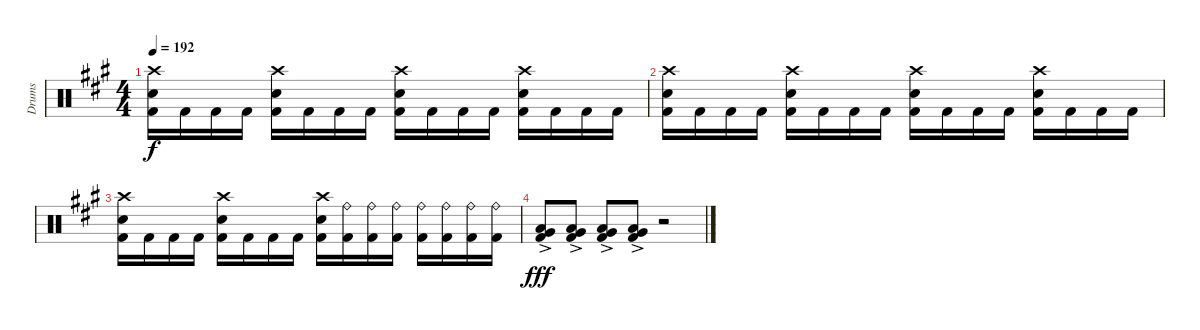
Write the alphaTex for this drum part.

\track ("Drums" "Drums") {instrument percussion}
\staff {score}
\articulation defaults
\ts (4 4)
\tempo 192
\clef neutral
\ks f#minor
("Crash high (hit)" "Snare (hit) 2" "Kick (hit) 2").16{dy f} "Kick (hit) 2".16 "Kick (hit) 2".16 "Kick (hit) 2".16 ("Crash high (hit)" "Snare (hit) 2" "Kick (hit) 2").16 "Kick (hit) 2".16 "Kick (hit) 2".16 "Kick (hit) 2".16 ("Crash high (hit)" "Snare (hit) 2" "Kick (hit) 2").16 "Kick (hit) 2".16 "Kick (hit) 2".16 "Kick (hit) 2".16 ("Crash high (hit)" "Snare (hit) 2" "Kick (hit) 2").16 "Kick (hit) 2".16 "Kick (hit) 2".16 "Kick (hit) 2".16 |
("Crash high (hit)" "Snare (hit) 2" "Kick (hit) 2").16 "Kick (hit) 2".16 "Kick (hit) 2".16 "Kick (hit) 2".16 ("Crash high (hit)" "Snare (hit) 2" "Kick (hit) 2").16 "Kick (hit) 2".16 "Kick (hit) 2".16 "Kick (hit) 2".16 ("Crash high (hit)" "Snare (hit) 2" "Kick (hit) 2").16 "Kick (hit) 2".16 "Kick (hit) 2".16 "Kick (hit) 2".16 ("Crash high (hit)" "Snare (hit) 2" "Kick (hit) 2").16 "Kick (hit) 2".16 "Kick (hit) 2".16 "Kick (hit) 2".16 |
("Crash high (hit)" "Snare (hit) 2" "Kick (hit) 2").16 "Kick (hit) 2".16 "Kick (hit) 2".16 "Kick (hit) 2".16 ("Crash high (hit)" "Snare (hit) 2" "Kick (hit) 2").16 "Kick (hit) 2".16 "Kick (hit) 2".16 "Kick (hit) 2".16 ("Crash high (hit)" "Snare (hit) 2" "Kick (hit) 2").16 ("Ride (bell)" "Kick (hit) 2").16 ("Ride (bell)" "Kick (hit) 2").16 ("Ride (bell)" "Kick (hit) 2").16 ("Ride (bell)" "Kick (hit) 2").16 ("Ride (bell)" "Kick (hit) 2").16 ("Ride (bell)" "Kick (hit) 2").16 ("Ride (bell)" "Kick (hit) 2").16 |
("Low Tom (hit)"{ac} "Very Low Tom (hit)"{ac} "Kick (hit) 2").8{dy fff} ("Low Tom (hit)"{ac} "Very Low Tom (hit)"{ac} "Kick (hit) 2").8 ("Low Tom (hit)"{ac} "Very Low Tom (hit)"{ac} "Kick (hit) 2").8 ("Low Tom (hit)"{ac} "Very Low Tom (hit)"{ac} "Kick (hit) 2").8 r.2
